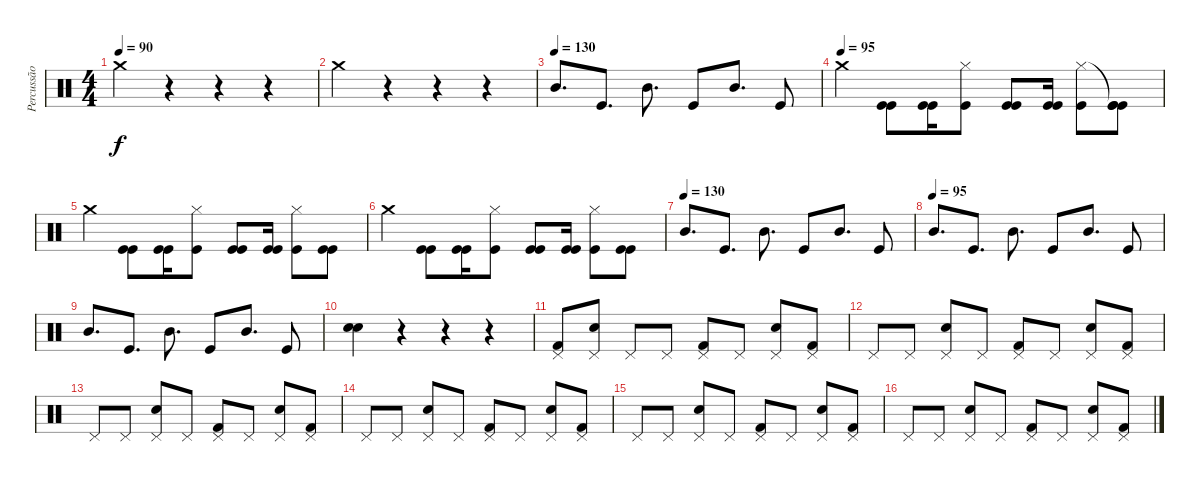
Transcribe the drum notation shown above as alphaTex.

\track ("Percussão" "Percussão") {instrument percussion}
\staff {score}
\articulation defaults
\ts (4 4)
\tempo 90
\clef neutral
\ks c "Crash medium (hit)".4{dy f}
r.4 r.4 r.4 |
"Crash medium (hit)".4 r.4 r.4 r.4 |
\tempo (130)
"Mid Tom (hit)".8{d} "Kick (hit)".8{d} "Mid Tom (hit)".8{d} "Kick (hit)".8 "Mid Tom (hit)".8{d} "Kick (hit)".8 |
\tempo (95)
"Crash medium (hit)".4 ("Kick (hit)" "Kick (hit)").8 ("Kick (hit)" "Kick (hit)").16 ("Hi-Hat (closed)" "Kick (hit)").8 ("Kick (hit)" "Kick (hit)").8 ("Kick (hit)" "Kick (hit)").16 ("Hi-Hat (closed)" "Kick (hit)").8 ("Kick (hit)"{t} "Kick (hit)" "Kick (hit)").8 |
"Crash medium (hit)".4 ("Kick (hit)" "Kick (hit)").8 ("Kick (hit)" "Kick (hit)").16 ("Kick (hit)" "Hi-Hat (closed)").8 ("Kick (hit)" "Kick (hit)").8 ("Kick (hit)" "Kick (hit)").16 ("Kick (hit)" "Hi-Hat (closed)").8 ("Kick (hit)" "Kick (hit)").8 |
"Crash medium (hit)".4 ("Kick (hit)" "Kick (hit)").8 ("Kick (hit)" "Kick (hit)").16 ("Kick (hit)" "Hi-Hat (closed)").8 ("Kick (hit)" "Kick (hit)").8 ("Kick (hit)" "Kick (hit)").16 ("Kick (hit)" "Hi-Hat (closed)").8 ("Kick (hit)" "Kick (hit)").8 |
\tempo (130)
"Mid Tom (hit)".8{d} "Kick (hit)".8{d} "Mid Tom (hit)".8{d} "Kick (hit)".8 "Mid Tom (hit)".8{d} "Kick (hit)".8 |
\tempo (95)
"Mid Tom (hit)".8{d} "Kick (hit)".8{d} "Mid Tom (hit)".8{d} "Kick (hit)".8 "Mid Tom (hit)".8{d} "Kick (hit)".8 |
"Mid Tom (hit)".8{d} "Kick (hit)".8{d} "Mid Tom (hit)".8{d} "Kick (hit)".8 "Mid Tom (hit)".8{d} "Kick (hit)".8 |
("Snare (hit) 2" "Snare (hit) 2").4 r.4 r.4 r.4 |
("Pedal Hi-Hat (hit)" "Kick (hit) 2").8 ("Pedal Hi-Hat (hit)" "Electric Snare (hit)").8 "Pedal Hi-Hat (hit)".8 "Pedal Hi-Hat (hit)".8 ("Pedal Hi-Hat (hit)" "Kick (hit) 2").8 "Pedal Hi-Hat (hit)".8 ("Pedal Hi-Hat (hit)" "Electric Snare (hit)").8 ("Pedal Hi-Hat (hit)" "Kick (hit) 2").8 |
"Pedal Hi-Hat (hit)".8 "Pedal Hi-Hat (hit)".8 ("Pedal Hi-Hat (hit)" "Electric Snare (hit)").8 "Pedal Hi-Hat (hit)".8 ("Pedal Hi-Hat (hit)" "Kick (hit) 2").8 "Pedal Hi-Hat (hit)".8 ("Pedal Hi-Hat (hit)" "Electric Snare (hit)").8 ("Pedal Hi-Hat (hit)" "Kick (hit) 2").8 |
"Pedal Hi-Hat (hit)".8 "Pedal Hi-Hat (hit)".8 ("Pedal Hi-Hat (hit)" "Electric Snare (hit)").8 "Pedal Hi-Hat (hit)".8 ("Pedal Hi-Hat (hit)" "Kick (hit) 2").8 "Pedal Hi-Hat (hit)".8 ("Pedal Hi-Hat (hit)" "Electric Snare (hit)").8 ("Pedal Hi-Hat (hit)" "Kick (hit) 2").8 |
"Pedal Hi-Hat (hit)".8 "Pedal Hi-Hat (hit)".8 ("Pedal Hi-Hat (hit)" "Electric Snare (hit)").8 "Pedal Hi-Hat (hit)".8 ("Pedal Hi-Hat (hit)" "Kick (hit) 2").8 "Pedal Hi-Hat (hit)".8 ("Pedal Hi-Hat (hit)" "Electric Snare (hit)").8 ("Pedal Hi-Hat (hit)" "Kick (hit) 2").8 |
"Pedal Hi-Hat (hit)".8 "Pedal Hi-Hat (hit)".8 ("Pedal Hi-Hat (hit)" "Electric Snare (hit)").8 "Pedal Hi-Hat (hit)".8 ("Pedal Hi-Hat (hit)" "Kick (hit) 2").8 "Pedal Hi-Hat (hit)".8 ("Pedal Hi-Hat (hit)" "Electric Snare (hit)").8 ("Pedal Hi-Hat (hit)" "Kick (hit) 2").8 |
"Pedal Hi-Hat (hit)".8 "Pedal Hi-Hat (hit)".8 ("Pedal Hi-Hat (hit)" "Electric Snare (hit)").8 "Pedal Hi-Hat (hit)".8 ("Pedal Hi-Hat (hit)" "Kick (hit) 2").8 "Pedal Hi-Hat (hit)".8 ("Pedal Hi-Hat (hit)" "Electric Snare (hit)").8 ("Pedal Hi-Hat (hit)" "Kick (hit) 2").8
